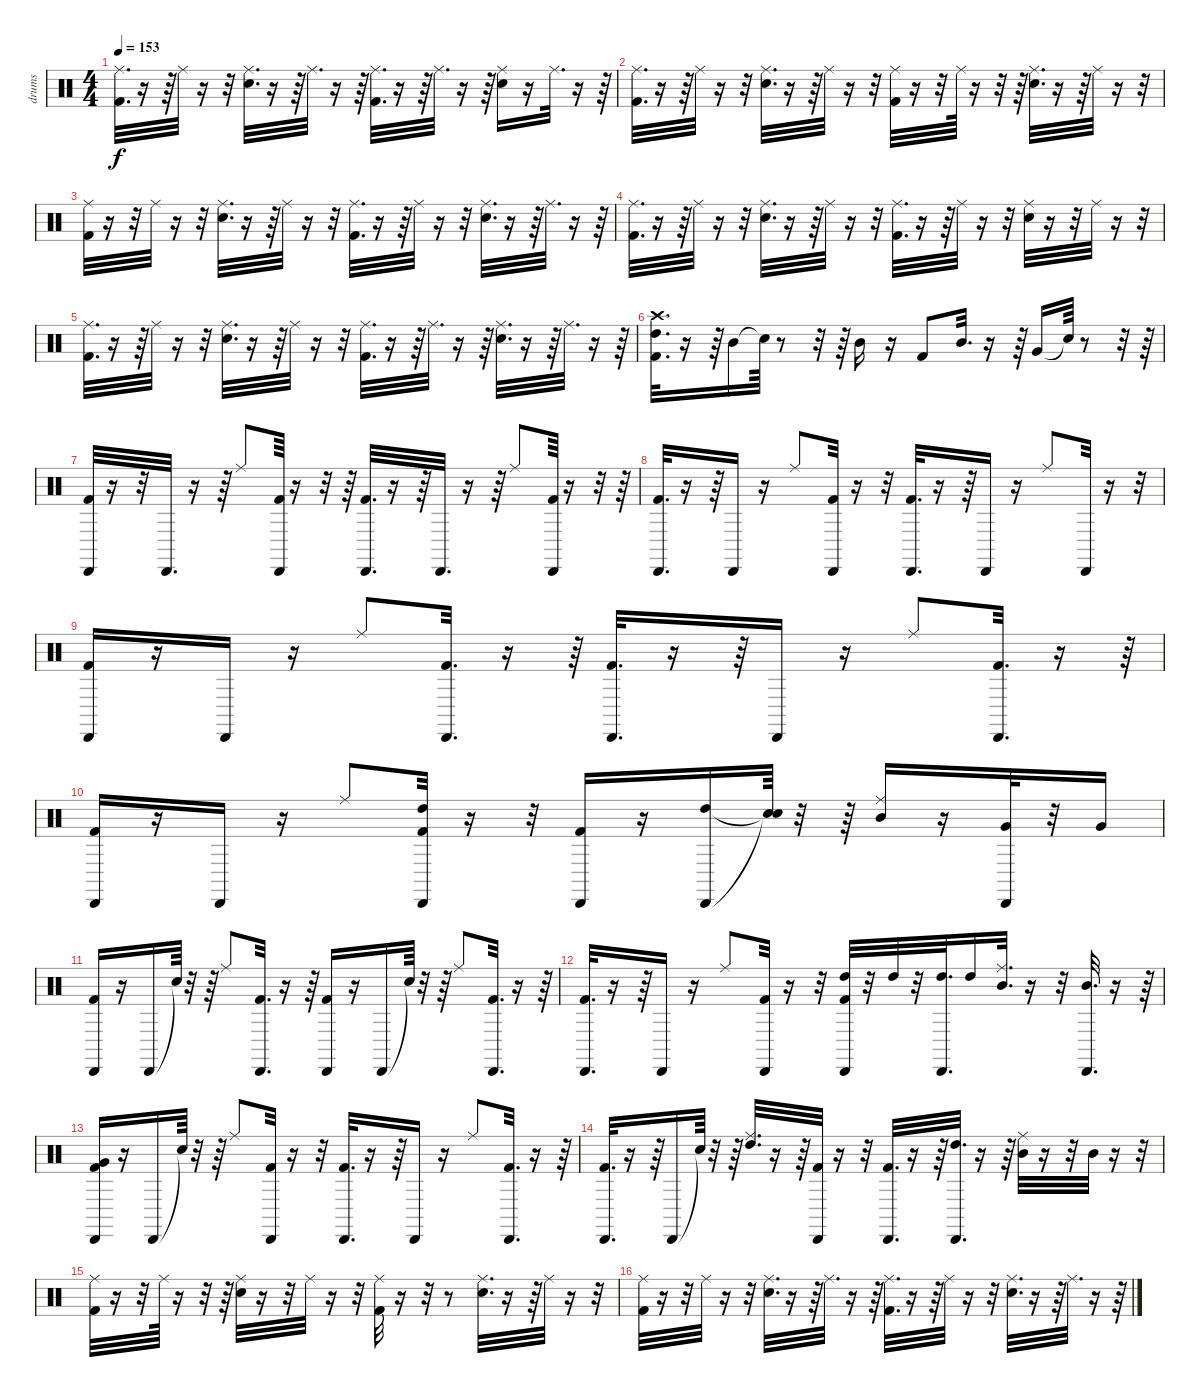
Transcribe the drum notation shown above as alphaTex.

\track ("drums" "drums") {instrument percussion}
\staff {score}
\articulation defaults
\ts (4 4)
\tempo 153
\clef neutral
\ks c
("Ride (middle)" "Kick (hit) 2").32{d dy f} r.16 r.64 "Ride (middle)".32 r.16 r.32 ("Ride (middle)" "Snare (hit) 2").32{d} r.16 r.64 "Ride (middle)".32{d} r.16 r.64 ("Ride (middle)" "Kick (hit) 2").32{d} r.16 r.64 "Ride (middle)".32{d} r.16 r.64 ("Ride (middle)" "Snare (hit) 2").16 r.16 "Ride (middle)".32{d} r.16 r.64 |
("Ride (middle)" "Kick (hit) 2").32{d} r.16 r.64 "Ride (middle)".32 r.16 r.32 ("Ride (middle)" "Snare (hit) 2").32{d} r.16 r.64 "Ride (middle)".32 r.16 r.32 ("Ride (middle)" "Kick (hit) 2").32 r.16 r.32 "Ride (middle)".64 r.16 r.32 r.64 ("Ride (middle)" "Snare (hit) 2").32{d} r.16 r.64 "Ride (middle)".32 r.16 r.32 |
("Ride (middle)" "Kick (hit) 2").32 r.16 r.32 "Ride (middle)".32 r.16 r.32 ("Ride (middle)" "Snare (hit) 2").32{d} r.16 r.64 "Ride (middle)".32 r.16 r.32 ("Ride (middle)" "Kick (hit) 2").32{d} r.16 r.64 "Ride (middle)".32 r.16 r.32 ("Ride (middle)" "Snare (hit) 2").32{d} r.16 r.64 "Ride (middle)".32{d} r.16 r.64 |
("Ride (middle)" "Kick (hit) 2").32{d} r.16 r.64 "Ride (middle)".32 r.16 r.32 ("Ride (middle)" "Snare (hit) 2").32{d} r.16 r.64 "Ride (middle)".32 r.16 r.32 ("Ride (middle)" "Kick (hit) 2").32{d} r.16 r.64 "Ride (middle)".32 r.16 r.32 ("Ride (middle)" "Snare (hit) 2").32 r.16 r.32 "Ride (middle)".32 r.16 r.32 |
("Ride (middle)" "Kick (hit) 2").32{d} r.16 r.64 "Ride (middle)".32 r.16 r.32 ("Ride (middle)" "Snare (hit) 2").32{d} r.16 r.64 "Ride (middle)".32 r.16 r.32 ("Ride (middle)" "Kick (hit) 2").32{d} r.16 r.64 "Ride (middle)".32{d} r.16 r.64 ("Ride (middle)" "Snare (hit) 2").32{d} r.16 r.64 "Ride (middle)".32{d} r.16 r.64 |
("High Tom (hit)" "Kick (hit) 2" "Crash high (hit)").32{d} r.16 r.64 "Mid Tom (hit)".16 "Snare (hit)"{t}.64 r.8 r.32 r.64 "Mid Tom (hit)".16 r.16 "Kick (hit) 2".8 "Mid Tom (hit)".32{d} r.16 r.64 "Very Low Tom (hit)".16 "Snare (hit)"{t}.64 r.8 r.32 r.64 |
("Cabasa (hit)" "Kick (hit) 2").32 r.16 r.32 "Cabasa (hit)".32{d} r.16 r.64 "Ride (middle)".8 ("Cabasa (hit)" "Kick (hit) 2").64 r.16 r.32 r.64 ("Cabasa (hit)" "Kick (hit) 2").32{d} r.16 r.64 "Cabasa (hit)".32{d} r.16 r.64 "Ride (middle)".8 ("Cabasa (hit)" "Kick (hit) 2").64 r.16 r.32 r.64 |
("Cabasa (hit)" "Kick (hit) 2").32{d} r.16 r.64 "Cabasa (hit)".16 r.16 "Ride (middle)".8 ("Cabasa (hit)" "Kick (hit) 2").32 r.16 r.32 ("Cabasa (hit)" "Kick (hit) 2").32{d} r.16 r.64 "Cabasa (hit)".16 r.16 "Ride (middle)".8 "Cabasa (hit)".32 r.16 r.32 |
("Cabasa (hit)" "Kick (hit) 2").16 r.16 "Cabasa (hit)".16 r.16 "Ride (middle)".8 ("Cabasa (hit)" "Kick (hit) 2").32{d} r.16 r.64 ("Cabasa (hit)" "Kick (hit) 2").32{d} r.16 r.64 "Cabasa (hit)".16 r.16 "Ride (middle)".8 ("Cabasa (hit)" "Kick (hit) 2").32{d} r.16 r.64 |
("Cabasa (hit)" "Kick (hit) 2").16 r.16 "Cabasa (hit)".16 r.16 "Ride (middle)".8 ("Cabasa (hit)" "High Tom (hit)" "Kick (hit) 2").32 r.16 r.32 ("Cabasa (hit)" "Kick (hit) 2").16 r.16 ("Cabasa (hit)" "High Tom (hit)").16 ("Snare (hit)"{t} "Snare (hit)"{t}).64 r.32 r.64 ("Ride (middle)" "Mid Tom (hit)").16 r.16 ("Cabasa (hit)" "Very Low Tom (hit)").32 r.32 "Very Low Tom (hit)".16 |
("Cabasa (hit)" "Kick (hit) 2").16 r.16 "Cabasa (hit)".16 "Snare (hit)"{t}.64 r.32 r.64 "Ride (middle)".8 ("Cabasa (hit)" "Kick (hit) 2").32{d} r.16 r.64 ("Cabasa (hit)" "Kick (hit) 2").16 r.16 "Cabasa (hit)".16 "Snare (hit)"{t}.64 r.32 r.64 "Ride (middle)".8 ("Cabasa (hit)" "Kick (hit) 2").32{d} r.16 r.64 |
("Cabasa (hit)" "Kick (hit) 2").32{d} r.16 r.64 "Cabasa (hit)".16 r.16 "Ride (middle)".8 ("Cabasa (hit)" "Kick (hit) 2").32 r.16 r.32 ("Cabasa (hit)" "High Tom (hit)" "Kick (hit) 2").32 r.32 "High Tom (hit)".32 r.32 ("Cabasa (hit)" "High Tom (hit)").32{d} "High Tom (hit)".16 ("Ride (middle)" "Mid Tom (hit)").32{d} r.16 r.32 ("Cabasa (hit)" "Mid Tom (hit)").32{d} r.16 r.64 |
("Cabasa (hit)" "Very Low Tom (hit)" "Kick (hit) 2").16 r.16 "Cabasa (hit)".16 "Snare (hit)"{t}.64 r.32 r.64 "Ride (middle)".8 ("Cabasa (hit)" "Kick (hit) 2").32 r.16 r.32 ("Cabasa (hit)" "Kick (hit) 2").32{d} r.16 r.64 "Cabasa (hit)".16 r.16 "Ride (middle)".8 ("Cabasa (hit)" "Kick (hit) 2").32{d} r.16 r.64 |
("Cabasa (hit)" "Kick (hit) 2").32{d} r.16 r.64 "Cabasa (hit)".16 "Snare (hit)"{t}.64 r.32 r.64 ("Ride (middle)" "High Tom (hit)").32{d} r.16 r.64 ("Cabasa (hit)" "Kick (hit) 2").32 r.16 r.32 ("Cabasa (hit)" "Kick (hit) 2").32{d} r.16 r.64 ("Cabasa (hit)" "High Tom (hit)").32{d} r.16 r.64 ("Ride (middle)" "Mid Tom (hit)").32 r.16 r.32 "Mid Tom (hit)".32 r.16 r.32 |
("Ride (middle)" "Kick (hit) 2").32 r.16 r.32 "Ride (middle)".64 r.16 r.32 r.64 ("Ride (middle)" "Snare (hit) 2").32 r.16 r.32 "Ride (middle)".32 r.16 r.32 ("Ride (middle)" "Kick (hit) 2").32 r.16 r.32 r.8 ("Ride (middle)" "Snare (hit) 2").32{d} r.16 r.64 "Ride (middle)".32 r.16 r.32 |
("Ride (middle)" "Kick (hit) 2").32 r.16 r.32 "Ride (middle)".32 r.16 r.32 ("Ride (middle)" "Snare (hit) 2").32{d} r.16 r.64 "Ride (middle)".32{d} r.16 r.64 ("Ride (middle)" "Kick (hit) 2").32{d} r.16 r.64 "Ride (middle)".32 r.16 r.32 ("Ride (middle)" "Snare (hit) 2").32{d} r.16 r.64 "Ride (middle)".32{d} r.16 r.64
